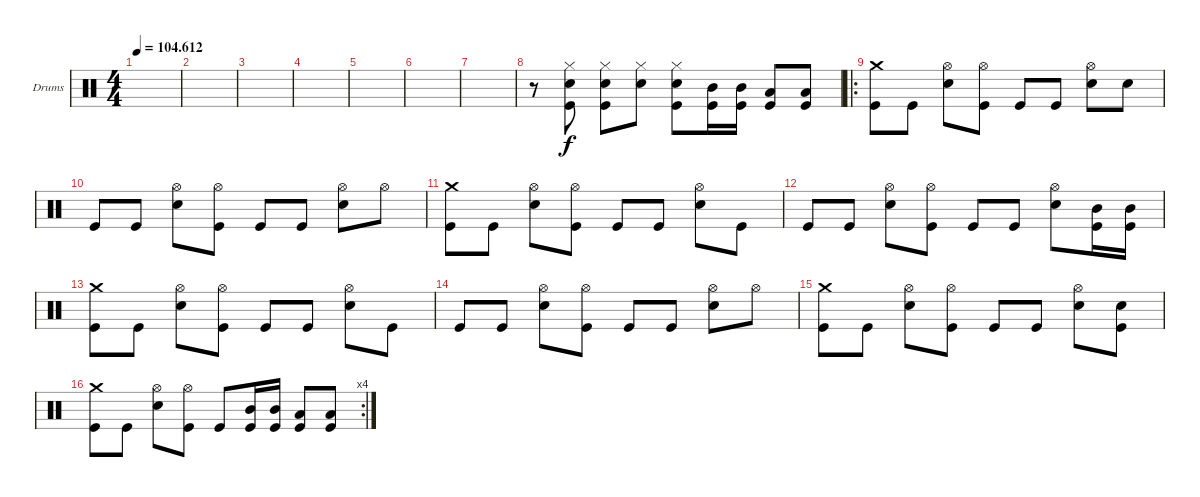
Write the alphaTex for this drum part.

\defaultSystemsLayout 4
\bracketExtendMode groupsimilarinstruments
\firstSystemTrackNameOrientation horizontal
\otherSystemsTrackNameOrientation horizontal
\track ("Drumkit" "Drums") {instrument percussion}
\staff {score}
\articulation defaults
\ts (4 4)
\tempo
104.612
\accidentals auto
\clef neutral
\ottava regular
\simile none
\scale
0.472222
\ks c
|
\scale
0.263889 |
\scale
0.263889 |
\scale
0.333333 |
\scale
0.333333 |
\scale
0.333333 |
\scale
0.311475 |
\scale
0.311475 r.8 ("Kick (hit)" "Snare (hit) 2" "Hi-Hat (closed)").8 ("Kick (hit)" "Snare (hit) 2" "Hi-Hat (closed)").8 ("Snare (hit) 2" "Hi-Hat (closed)").8 ("Kick (hit)" "Snare (hit) 2" "Hi-Hat (closed)").8 ("Mid Tom (hit)" "Kick (hit)").16 ("Mid Tom (hit)" "Kick (hit)").16 ("Low Tom (hit)" "Kick (hit)").8 ("Low Tom (hit)" "Kick (hit)").8 |
\ro
\scale
0.377049 ("Kick (hit)" "Crash medium (hit)").8 "Kick (hit)".8 ("Snare (hit) 2" "Hi-Hat (open)").8 ("Kick (hit)" "Hi-Hat (open)").8 "Kick (hit)".8 "Kick (hit)".8 ("Snare (hit) 2" "Hi-Hat (open)").8 "Snare (hit) 2".8 |
\scale
0.333333 "Kick (hit)".8 "Kick (hit)".8 ("Snare (hit) 2" "Hi-Hat (open)").8 ("Kick (hit)" "Hi-Hat (open)").8 "Kick (hit)".8 "Kick (hit)".8 ("Snare (hit) 2" "Hi-Hat (open)").8 "Hi-Hat (open)".8 |
\scale
0.333333 ("Kick (hit)" "Crash medium (hit)").8 "Kick (hit)".8 ("Snare (hit) 2" "Hi-Hat (open)").8 ("Kick (hit)" "Hi-Hat (open)").8 "Kick (hit)".8 "Kick (hit)".8 ("Snare (hit) 2" "Hi-Hat (open)").8 "Kick (hit)".8 |
\scale
0.333333 "Kick (hit)".8 "Kick (hit)".8 ("Snare (hit) 2" "Hi-Hat (open)").8 ("Kick (hit)" "Hi-Hat (open)").8 "Kick (hit)".8 "Kick (hit)".8 ("Snare (hit) 2" "Hi-Hat (open)").8 ("Mid Tom (hit)" "Kick (hit)").16 ("Mid Tom (hit)" "Kick (hit)").16 |
\scale
0.333333 ("Kick (hit)" "Crash medium (hit)").8 "Kick (hit)".8 ("Snare (hit) 2" "Hi-Hat (open)").8 ("Kick (hit)" "Hi-Hat (open)").8 "Kick (hit)".8 "Kick (hit)".8 ("Snare (hit) 2" "Hi-Hat (open)").8 "Kick (hit)".8 |
\scale
0.333333 "Kick (hit)".8 "Kick (hit)".8 ("Snare (hit) 2" "Hi-Hat (open)").8 ("Kick (hit)" "Hi-Hat (open)").8 "Kick (hit)".8 "Kick (hit)".8 ("Snare (hit) 2" "Hi-Hat (open)").8 "Hi-Hat (open)".8 |
\scale
0.333333 ("Kick (hit)" "Crash medium (hit)").8 "Kick (hit)".8 ("Snare (hit) 2" "Hi-Hat (open)").8 ("Kick (hit)" "Hi-Hat (open)").8 "Kick (hit)".8 "Kick (hit)".8 ("Snare (hit) 2" "Hi-Hat (open)").8 ("Kick (hit)" "Snare (hit) 2").8 |
\rc 4
("Kick (hit)" "Crash medium (hit)").8 "Kick (hit)".8 ("Snare (hit) 2" "Hi-Hat (open)").8 ("Kick (hit)" "Hi-Hat (open)").8 "Kick (hit)".8 ("Mid Tom (hit)" "Kick (hit)").16 ("Mid Tom (hit)" "Kick (hit)").16 ("Low Tom (hit)" "Kick (hit)").8 ("Low Tom (hit)" "Kick (hit)").8
